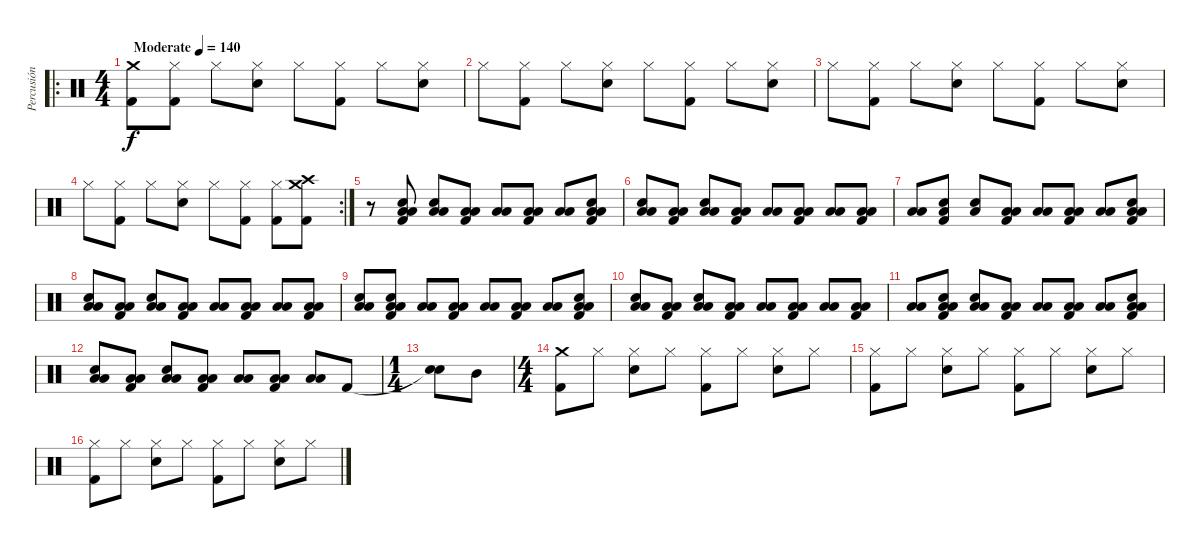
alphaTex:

\track ("Percusión" "Percusión") {instrument percussion}
\staff {score}
\articulation defaults
\ro
\ts (4 4)
\tempo (140 "Moderate")
\clef neutral
\ks c
("Crash medium (hit)" "Kick (hit) 2").8{dy f} ("Hi-Hat (closed)" "Kick (hit) 2").8 "Hi-Hat (closed)".8 ("Hi-Hat (closed)" "Snare (hit) 2").8 "Hi-Hat (closed)".8 ("Hi-Hat (closed)" "Kick (hit) 2").8 "Hi-Hat (closed)".8 ("Hi-Hat (closed)" "Snare (hit) 2").8 |
"Hi-Hat (closed)".8 ("Hi-Hat (closed)" "Kick (hit) 2").8 "Hi-Hat (closed)".8 ("Hi-Hat (closed)" "Snare (hit) 2").8 "Hi-Hat (closed)".8 ("Hi-Hat (closed)" "Kick (hit) 2").8 "Hi-Hat (closed)".8 ("Hi-Hat (closed)" "Snare (hit) 2").8 |
"Hi-Hat (closed)".8 ("Hi-Hat (closed)" "Kick (hit) 2").8 "Hi-Hat (closed)".8 ("Hi-Hat (closed)" "Snare (hit) 2").8 "Hi-Hat (closed)".8 ("Hi-Hat (closed)" "Kick (hit) 2").8 "Hi-Hat (closed)".8 ("Hi-Hat (closed)" "Snare (hit) 2").8 |
\rc 2 "Hi-Hat (closed)".8
("Hi-Hat (closed)" "Kick (hit) 2").8 "Hi-Hat (closed)".8 ("Hi-Hat (closed)" "Snare (hit) 2").8 "Hi-Hat (closed)".8 ("Hi-Hat (closed)" "Kick (hit) 2").8 ("Hi-Hat (closed)" "Kick (hit) 2").8 ("Crash medium (hit)" "Crash high (hit)" "Kick (hit) 2").8 |
r.8 ("Snare (hit) 2" "Low Floor Tom (hit)" "Low Floor Tom (hit)" "Kick (hit) 2").8 ("Snare (hit) 2" "Low Floor Tom (hit)" "Low Floor Tom (hit)").8 ("Low Floor Tom (hit)" "Low Floor Tom (hit)" "Kick (hit) 2").8 ("Low Floor Tom (hit)" "Low Floor Tom (hit)").8 ("Low Floor Tom (hit)" "Low Floor Tom (hit)" "Kick (hit) 2").8 ("Low Floor Tom (hit)" "Low Floor Tom (hit)").8 ("Snare (hit) 2" "Low Floor Tom (hit)" "Low Floor Tom (hit)" "Kick (hit) 2").8 |
("Snare (hit) 2" "Low Floor Tom (hit)" "Low Floor Tom (hit)").8 ("Low Floor Tom (hit)" "Low Floor Tom (hit)" "Kick (hit) 2").8 ("Snare (hit) 2" "Low Floor Tom (hit)" "Low Floor Tom (hit)").8 ("Low Floor Tom (hit)" "Low Floor Tom (hit)" "Kick (hit) 2").8 ("Low Floor Tom (hit)" "Low Floor Tom (hit)").8 ("Low Floor Tom (hit)" "Low Floor Tom (hit)" "Kick (hit) 2").8 ("Low Floor Tom (hit)" "Low Floor Tom (hit)").8 ("Low Floor Tom (hit)" "Low Floor Tom (hit)" "Kick (hit) 2").8 |
("Low Floor Tom (hit)" "Low Floor Tom (hit)").8 ("Snare (hit) 2" "Low Floor Tom (hit)" "Kick (hit) 2").8 ("Snare (hit) 2" "Low Floor Tom (hit)").8 ("Low Floor Tom (hit)" "Low Floor Tom (hit)" "Kick (hit) 2").8 ("Low Floor Tom (hit)" "Low Floor Tom (hit)").8 ("Low Floor Tom (hit)" "Low Floor Tom (hit)" "Kick (hit) 2").8 ("Low Floor Tom (hit)" "Low Floor Tom (hit)").8 ("Snare (hit) 2" "Low Floor Tom (hit)" "Low Floor Tom (hit)" "Kick (hit) 2").8 |
("Snare (hit) 2" "Low Floor Tom (hit)" "Low Floor Tom (hit)").8 ("Low Floor Tom (hit)" "Low Floor Tom (hit)" "Kick (hit) 2").8 ("Snare (hit) 2" "Low Floor Tom (hit)" "Low Floor Tom (hit)").8 ("Low Floor Tom (hit)" "Low Floor Tom (hit)" "Kick (hit) 2").8 ("Low Floor Tom (hit)" "Low Floor Tom (hit)").8 ("Low Floor Tom (hit)" "Low Floor Tom (hit)" "Kick (hit) 2").8 ("Low Floor Tom (hit)" "Low Floor Tom (hit)").8 ("Low Floor Tom (hit)" "Low Floor Tom (hit)" "Kick (hit) 2").8 |
("Snare (hit) 2" "Low Floor Tom (hit)" "Low Floor Tom (hit)").8 ("Snare (hit) 2" "Low Floor Tom (hit)" "Low Floor Tom (hit)" "Kick (hit) 2").8 ("Low Floor Tom (hit)" "Low Floor Tom (hit)").8 ("Low Floor Tom (hit)" "Low Floor Tom (hit)" "Kick (hit) 2").8 ("Low Floor Tom (hit)" "Low Floor Tom (hit)").8 ("Low Floor Tom (hit)" "Low Floor Tom (hit)" "Kick (hit) 2").8 ("Low Floor Tom (hit)" "Low Floor Tom (hit)").8 ("Snare (hit) 2" "Low Floor Tom (hit)" "Low Floor Tom (hit)" "Kick (hit) 2").8 |
("Snare (hit) 2" "Low Floor Tom (hit)" "Low Floor Tom (hit)").8 ("Low Floor Tom (hit)" "Low Floor Tom (hit)" "Kick (hit) 2").8 ("Snare (hit) 2" "Low Floor Tom (hit)" "Low Floor Tom (hit)").8 ("Low Floor Tom (hit)" "Low Floor Tom (hit)" "Kick (hit) 2").8 ("Low Floor Tom (hit)" "Low Floor Tom (hit)").8 ("Low Floor Tom (hit)" "Low Floor Tom (hit)" "Kick (hit) 2").8 ("Low Floor Tom (hit)" "Low Floor Tom (hit)").8 ("Low Floor Tom (hit)" "Low Floor Tom (hit)" "Kick (hit) 2").8 |
("Low Floor Tom (hit)" "Low Floor Tom (hit)").8 ("Snare (hit) 2" "Low Floor Tom (hit)" "Low Floor Tom (hit)" "Kick (hit) 2").8 ("Snare (hit) 2" "Low Floor Tom (hit)" "Low Floor Tom (hit)").8 ("Low Floor Tom (hit)" "Low Floor Tom (hit)" "Kick (hit) 2").8 ("Low Floor Tom (hit)" "Low Floor Tom (hit)").8 ("Low Floor Tom (hit)" "Low Floor Tom (hit)" "Kick (hit) 2").8 ("Low Floor Tom (hit)" "Low Floor Tom (hit)").8 ("Snare (hit) 2" "Low Floor Tom (hit)" "Low Floor Tom (hit)" "Kick (hit) 2").8 |
("Snare (hit) 2" "Low Floor Tom (hit)" "Low Floor Tom (hit)").8 ("Low Floor Tom (hit)" "Low Floor Tom (hit)" "Kick (hit) 2").8 ("Snare (hit) 2" "Low Floor Tom (hit)" "Low Floor Tom (hit)").8 ("Low Floor Tom (hit)" "Low Floor Tom (hit)" "Kick (hit) 2").8 ("Low Floor Tom (hit)" "Low Floor Tom (hit)").8 ("Low Floor Tom (hit)" "Low Floor Tom (hit)" "Kick (hit) 2").8 ("Low Floor Tom (hit)" "Low Floor Tom (hit)").8 "Kick (hit) 2".8 |
\ts (1 4)
("Snare (hit)"{t} "Snare (hit) 2").8 "Mid Tom (hit)".8 |
\ts (4 4)
("Crash medium (hit)" "Kick (hit) 2").8 "Hi-Hat (closed)".8 ("Hi-Hat (closed)" "Snare (hit) 2").8 "Hi-Hat (closed)".8 ("Hi-Hat (closed)" "Kick (hit) 2").8 "Hi-Hat (closed)".8 ("Hi-Hat (closed)" "Snare (hit) 2").8 "Hi-Hat (closed)".8 |
("Hi-Hat (closed)" "Kick (hit) 2").8 "Hi-Hat (closed)".8 ("Hi-Hat (closed)" "Snare (hit) 2").8 "Hi-Hat (closed)".8 ("Hi-Hat (closed)" "Kick (hit) 2").8 "Hi-Hat (closed)".8 ("Hi-Hat (closed)" "Snare (hit) 2").8 "Hi-Hat (closed)".8 |
("Hi-Hat (closed)" "Kick (hit) 2").8 "Hi-Hat (closed)".8 ("Hi-Hat (closed)" "Snare (hit) 2").8 "Hi-Hat (closed)".8 ("Hi-Hat (closed)" "Kick (hit) 2").8 "Hi-Hat (closed)".8 ("Hi-Hat (closed)" "Snare (hit) 2").8 "Hi-Hat (closed)".8
